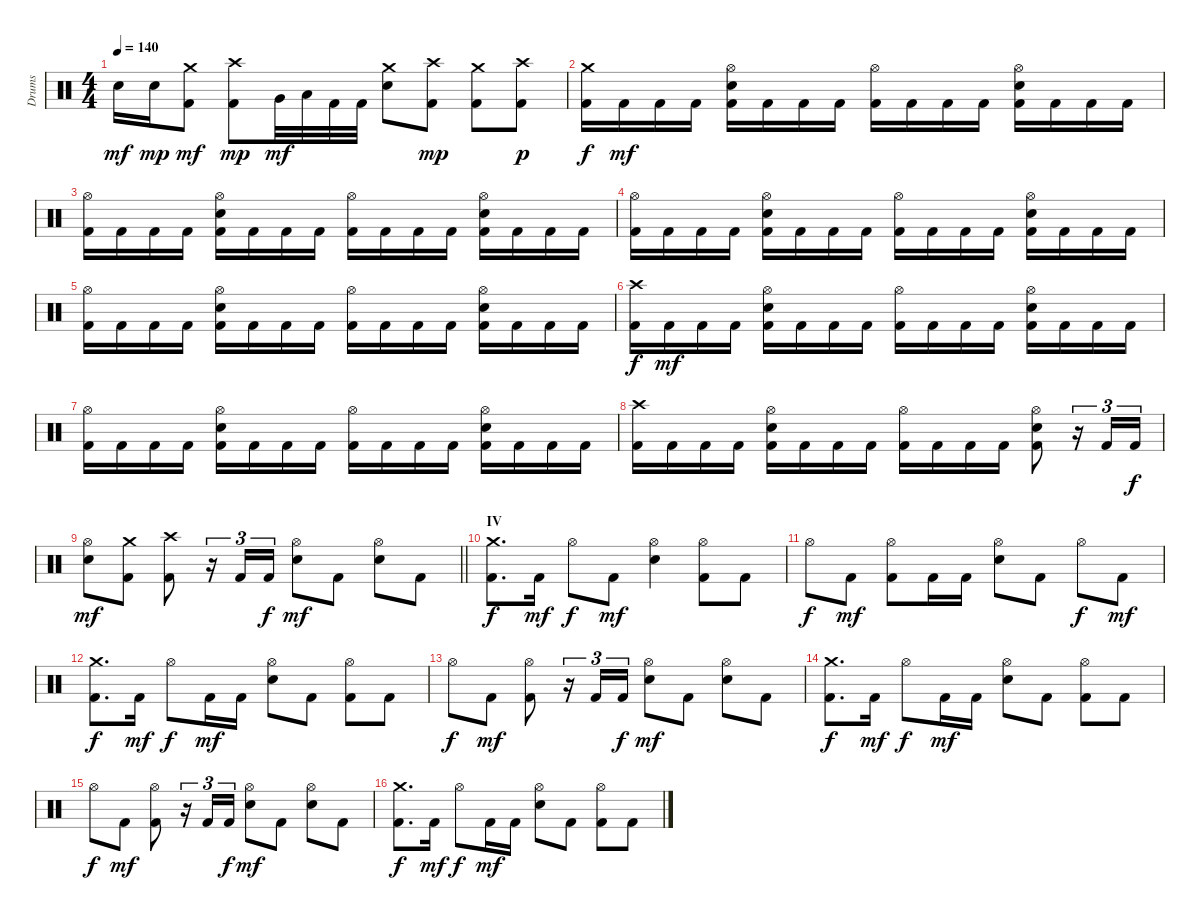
\track ("Drums" "Drums") {instrument percussion}
\staff {score}
\articulation defaults
\ts (4 4)
\tempo 140
\clef neutral
\ks c "Electric Snare (hit)".16{dy mf} "Electric Snare (hit)".16{dy mp}
("Kick (hit) 2" "Crash medium (hit)").8{dy mf} ("Kick (hit) 2" "Crash high (hit)").8{dy mp} "Very Low Tom (hit)".32{dy mf} "Low Tom (hit)".32 "Kick (hit) 2".32 "Kick (hit) 2".32 ("Electric Snare (hit)" "Crash medium (hit)").8 ("Kick (hit) 2" "Crash high (hit)").8{dy mp} ("Kick (hit) 2" "Crash medium (hit)").8 ("Kick (hit) 2" "Crash high (hit)").8{dy p} |
("Kick (hit) 2" "Crash medium (hit)").16{dy f} "Kick (hit) 2".16{dy mf} "Kick (hit) 2".16 "Kick (hit) 2".16 ("Kick (hit) 2" "Electric Snare (hit)" "Hi-Hat (open)").16 "Kick (hit) 2".16 "Kick (hit) 2".16 "Kick (hit) 2".16 ("Kick (hit) 2" "Hi-Hat (open)").16 "Kick (hit) 2".16 "Kick (hit) 2".16 "Kick (hit) 2".16 ("Kick (hit) 2" "Electric Snare (hit)" "Hi-Hat (open)").16 "Kick (hit) 2".16 "Kick (hit) 2".16 "Kick (hit) 2".16 |
("Kick (hit) 2" "Hi-Hat (open)").16 "Kick (hit) 2".16 "Kick (hit) 2".16 "Kick (hit) 2".16 ("Kick (hit) 2" "Electric Snare (hit)" "Hi-Hat (open)").16 "Kick (hit) 2".16 "Kick (hit) 2".16 "Kick (hit) 2".16 ("Kick (hit) 2" "Hi-Hat (open)").16 "Kick (hit) 2".16 "Kick (hit) 2".16 "Kick (hit) 2".16 ("Kick (hit) 2" "Electric Snare (hit)" "Hi-Hat (open)").16 "Kick (hit) 2".16 "Kick (hit) 2".16 "Kick (hit) 2".16 |
("Kick (hit) 2" "Hi-Hat (open)").16 "Kick (hit) 2".16 "Kick (hit) 2".16 "Kick (hit) 2".16 ("Kick (hit) 2" "Electric Snare (hit)" "Hi-Hat (open)").16 "Kick (hit) 2".16 "Kick (hit) 2".16 "Kick (hit) 2".16 ("Kick (hit) 2" "Hi-Hat (open)").16 "Kick (hit) 2".16 "Kick (hit) 2".16 "Kick (hit) 2".16 ("Kick (hit) 2" "Electric Snare (hit)" "Hi-Hat (open)").16 "Kick (hit) 2".16 "Kick (hit) 2".16 "Kick (hit) 2".16 |
("Kick (hit) 2" "Hi-Hat (open)").16 "Kick (hit) 2".16 "Kick (hit) 2".16 "Kick (hit) 2".16 ("Kick (hit) 2" "Electric Snare (hit)" "Hi-Hat (open)").16 "Kick (hit) 2".16 "Kick (hit) 2".16 "Kick (hit) 2".16 ("Kick (hit) 2" "Hi-Hat (open)").16 "Kick (hit) 2".16 "Kick (hit) 2".16 "Kick (hit) 2".16 ("Kick (hit) 2" "Electric Snare (hit)" "Hi-Hat (open)").16 "Kick (hit) 2".16 "Kick (hit) 2".16 "Kick (hit) 2".16 |
("Kick (hit) 2" "Crash high (hit)").16{dy f} "Kick (hit) 2".16{dy mf} "Kick (hit) 2".16 "Kick (hit) 2".16 ("Kick (hit) 2" "Electric Snare (hit)" "Hi-Hat (open)").16 "Kick (hit) 2".16 "Kick (hit) 2".16 "Kick (hit) 2".16 ("Kick (hit) 2" "Hi-Hat (open)").16 "Kick (hit) 2".16 "Kick (hit) 2".16 "Kick (hit) 2".16 ("Kick (hit) 2" "Electric Snare (hit)" "Hi-Hat (open)").16 "Kick (hit) 2".16 "Kick (hit) 2".16 "Kick (hit) 2".16 |
("Kick (hit) 2" "Hi-Hat (open)").16 "Kick (hit) 2".16 "Kick (hit) 2".16 "Kick (hit) 2".16 ("Kick (hit) 2" "Electric Snare (hit)" "Hi-Hat (open)").16 "Kick (hit) 2".16 "Kick (hit) 2".16 "Kick (hit) 2".16 ("Kick (hit) 2" "Hi-Hat (open)").16 "Kick (hit) 2".16 "Kick (hit) 2".16 "Kick (hit) 2".16 ("Kick (hit) 2" "Electric Snare (hit)" "Hi-Hat (open)").16 "Kick (hit) 2".16 "Kick (hit) 2".16 "Kick (hit) 2".16 |
("Kick (hit) 2" "Crash high (hit)").16 "Kick (hit) 2".16 "Kick (hit) 2".16 "Kick (hit) 2".16 ("Kick (hit) 2" "Electric Snare (hit)" "Hi-Hat (open)").16 "Kick (hit) 2".16 "Kick (hit) 2".16 "Kick (hit) 2".16 ("Kick (hit) 2" "Hi-Hat (open)").16 "Kick (hit) 2".16 "Kick (hit) 2".16 "Kick (hit) 2".16 ("Kick (hit) 2" "Electric Snare (hit)" "Hi-Hat (open)").8 r.16{tu (3 2)} "Kick (hit) 2".16{tu (3 2)} "Kick (hit) 2".16{tu (3 2) dy f} |
\barLineRight lightlight
("Electric Snare (hit)" "Hi-Hat (open)").8{dy mf} ("Kick (hit) 2" "Crash medium (hit)").8 ("Kick (hit) 2" "Crash high (hit)").8 r.16{tu (3 2)} "Kick (hit) 2".16{tu (3 2)} "Kick (hit) 2".16{tu (3 2) dy f} ("Electric Snare (hit)" "Hi-Hat (open)").8{dy mf} "Kick (hit) 2".8 ("Electric Snare (hit)" "Hi-Hat (open)").8 "Kick (hit) 2".8 |
\section ("" "IV")
("Kick (hit) 2" "Crash medium (hit)").8{d dy f} "Kick (hit) 2".16{dy mf} "Hi-Hat (open)".8{dy f} "Kick (hit) 2".8{dy mf} ("Electric Snare (hit)" "Hi-Hat (open)").4 ("Kick (hit) 2" "Hi-Hat (open)").8 "Kick (hit) 2".8 |
"Hi-Hat (open)".8{dy f} "Kick (hit) 2".8{dy mf} ("Kick (hit) 2" "Hi-Hat (open)").8 "Kick (hit) 2".16 "Kick (hit) 2".16 ("Electric Snare (hit)" "Hi-Hat (open)").8 "Kick (hit) 2".8 "Hi-Hat (open)".8{dy f} "Kick (hit) 2".8{dy mf} |
("Kick (hit) 2" "Crash medium (hit)").8{d dy f} "Kick (hit) 2".16{dy mf} "Hi-Hat (open)".8{dy f} "Kick (hit) 2".16{dy mf} "Kick (hit) 2".16 ("Electric Snare (hit)" "Hi-Hat (open)").8 "Kick (hit) 2".8 ("Kick (hit) 2" "Hi-Hat (open)").8 "Kick (hit) 2".8 |
"Hi-Hat (open)".8{dy f} "Kick (hit) 2".8{dy mf} ("Kick (hit) 2" "Hi-Hat (open)").8 r.16{tu (3 2)} "Kick (hit) 2".16{tu (3 2)} "Kick (hit) 2".16{tu (3 2) dy f} ("Electric Snare (hit)" "Hi-Hat (open)").8{dy mf} "Kick (hit) 2".8 ("Electric Snare (hit)" "Hi-Hat (open)").8 "Kick (hit) 2".8 |
("Kick (hit) 2" "Crash medium (hit)").8{d dy f} "Kick (hit) 2".16{dy mf} "Hi-Hat (open)".8{dy f} "Kick (hit) 2".16{dy mf} "Kick (hit) 2".16 ("Electric Snare (hit)" "Hi-Hat (open)").8 "Kick (hit) 2".8 ("Kick (hit) 2" "Hi-Hat (open)").8 "Kick (hit) 2".8 |
"Hi-Hat (open)".8{dy f} "Kick (hit) 2".8{dy mf} ("Kick (hit) 2" "Hi-Hat (open)").8 r.16{tu (3 2)} "Kick (hit) 2".16{tu (3 2)} "Kick (hit) 2".16{tu (3 2) dy f} ("Electric Snare (hit)" "Hi-Hat (open)").8{dy mf} "Kick (hit) 2".8 ("Electric Snare (hit)" "Hi-Hat (open)").8 "Kick (hit) 2".8 |
("Kick (hit) 2" "Crash medium (hit)").8{d dy f} "Kick (hit) 2".16{dy mf} "Hi-Hat (open)".8{dy f} "Kick (hit) 2".16{dy mf} "Kick (hit) 2".16 ("Electric Snare (hit)" "Hi-Hat (open)").8 "Kick (hit) 2".8 ("Kick (hit) 2" "Hi-Hat (open)").8 "Kick (hit) 2".8
